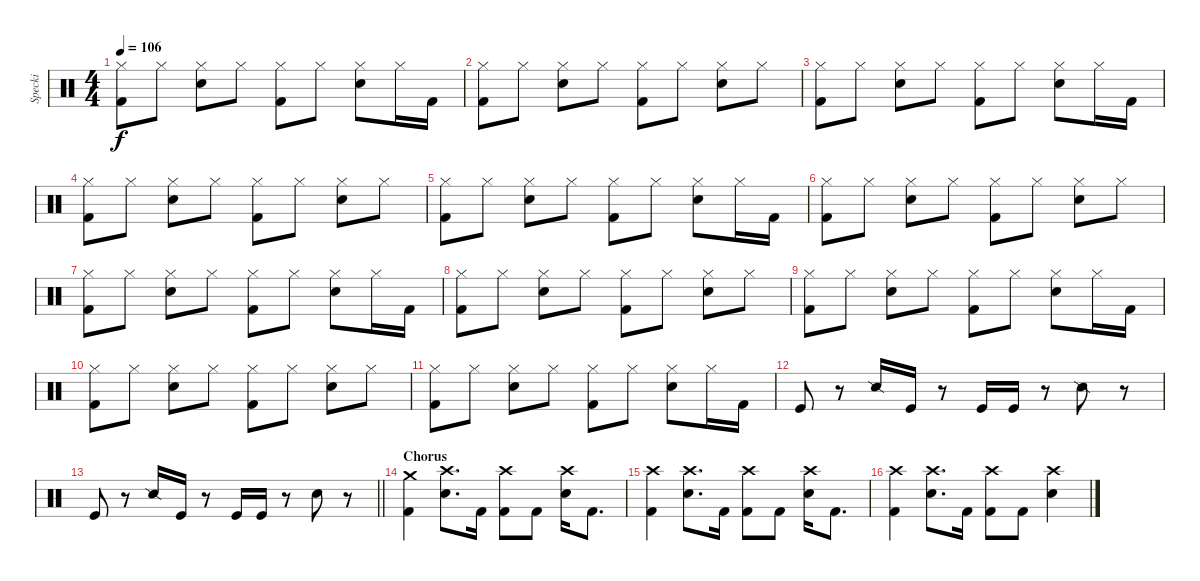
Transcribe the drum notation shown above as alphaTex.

\track ("Specki" "Specki") {instrument percussion}
\staff {score}
\articulation defaults
\ts (4 4)
\tempo 106
\clef neutral
\ks c
("Hi-Hat (closed)" "Kick (hit) 2").8{dy f} "Hi-Hat (closed)".8 ("Hi-Hat (closed)" "Snare (hit) 2").8 "Hi-Hat (closed)".8 ("Hi-Hat (closed)" "Kick (hit) 2").8 "Hi-Hat (closed)".8 ("Hi-Hat (closed)" "Snare (hit) 2").8 "Hi-Hat (closed)".16 "Kick (hit) 2".16 |
("Hi-Hat (closed)" "Kick (hit) 2").8 "Hi-Hat (closed)".8 ("Hi-Hat (closed)" "Snare (hit) 2").8 "Hi-Hat (closed)".8 ("Hi-Hat (closed)" "Kick (hit) 2").8 "Hi-Hat (closed)".8 ("Hi-Hat (closed)" "Snare (hit) 2").8 "Hi-Hat (closed)".8 |
("Hi-Hat (closed)" "Kick (hit) 2").8 "Hi-Hat (closed)".8 ("Hi-Hat (closed)" "Snare (hit) 2").8 "Hi-Hat (closed)".8 ("Hi-Hat (closed)" "Kick (hit) 2").8 "Hi-Hat (closed)".8 ("Hi-Hat (closed)" "Snare (hit) 2").8 "Hi-Hat (closed)".16 "Kick (hit) 2".16 |
("Hi-Hat (closed)" "Kick (hit) 2").8 "Hi-Hat (closed)".8 ("Hi-Hat (closed)" "Snare (hit) 2").8 "Hi-Hat (closed)".8 ("Hi-Hat (closed)" "Kick (hit) 2").8 "Hi-Hat (closed)".8 ("Hi-Hat (closed)" "Snare (hit) 2").8 "Hi-Hat (closed)".8 |
("Hi-Hat (closed)" "Kick (hit) 2").8 "Hi-Hat (closed)".8 ("Hi-Hat (closed)" "Snare (hit) 2").8 "Hi-Hat (closed)".8 ("Hi-Hat (closed)" "Kick (hit) 2").8 "Hi-Hat (closed)".8 ("Hi-Hat (closed)" "Snare (hit) 2").8 "Hi-Hat (closed)".16 "Kick (hit) 2".16 |
("Hi-Hat (closed)" "Kick (hit) 2").8 "Hi-Hat (closed)".8 ("Hi-Hat (closed)" "Snare (hit) 2").8 "Hi-Hat (closed)".8 ("Hi-Hat (closed)" "Kick (hit) 2").8 "Hi-Hat (closed)".8 ("Hi-Hat (closed)" "Snare (hit) 2").8 "Hi-Hat (closed)".8 |
("Hi-Hat (closed)" "Kick (hit) 2").8 "Hi-Hat (closed)".8 ("Hi-Hat (closed)" "Snare (hit) 2").8 "Hi-Hat (closed)".8 ("Hi-Hat (closed)" "Kick (hit) 2").8 "Hi-Hat (closed)".8 ("Hi-Hat (closed)" "Snare (hit) 2").8 "Hi-Hat (closed)".16 "Kick (hit) 2".16 |
("Hi-Hat (closed)" "Kick (hit) 2").8 "Hi-Hat (closed)".8 ("Hi-Hat (closed)" "Snare (hit) 2").8 "Hi-Hat (closed)".8 ("Hi-Hat (closed)" "Kick (hit) 2").8 "Hi-Hat (closed)".8 ("Hi-Hat (closed)" "Snare (hit) 2").8 "Hi-Hat (closed)".8 |
("Hi-Hat (closed)" "Kick (hit) 2").8 "Hi-Hat (closed)".8 ("Hi-Hat (closed)" "Snare (hit) 2").8 "Hi-Hat (closed)".8 ("Hi-Hat (closed)" "Kick (hit) 2").8 "Hi-Hat (closed)".8 ("Hi-Hat (closed)" "Snare (hit) 2").8 "Hi-Hat (closed)".16 "Kick (hit) 2".16 |
("Hi-Hat (closed)" "Kick (hit) 2").8 "Hi-Hat (closed)".8 ("Hi-Hat (closed)" "Snare (hit) 2").8 "Hi-Hat (closed)".8 ("Hi-Hat (closed)" "Kick (hit) 2").8 "Hi-Hat (closed)".8 ("Hi-Hat (closed)" "Snare (hit) 2").8 "Hi-Hat (closed)".8 |
("Hi-Hat (closed)" "Kick (hit) 2").8 "Hi-Hat (closed)".8 ("Hi-Hat (closed)" "Snare (hit) 2").8 "Hi-Hat (closed)".8 ("Hi-Hat (closed)" "Kick (hit) 2").8 "Hi-Hat (closed)".8 ("Hi-Hat (closed)" "Snare (hit) 2").8 "Hi-Hat (closed)".16 "Kick (hit) 2".16 |
"Kick (hit)".8 r.8 "Snare (side stick) 2".16 "Kick (hit)".16 r.8 "Kick (hit)".16 "Kick (hit)".16 r.8 "Snare (side stick) 2".8 r.8 |
\barLineRight lightlight "Kick (hit)".8
r.8 "Snare (side stick) 2".16 "Kick (hit)".16 r.8 "Kick (hit)".16 "Kick (hit)".16 r.8 "Electric Snare (hit)".8 r.8 |
\section ("" "Chorus")
("Crash medium (hit)" "Kick (hit) 2").4 ("Crash high (hit)" "Snare (hit) 2").8{d} "Kick (hit) 2".16 ("Crash high (hit)" "Kick (hit) 2").8 "Kick (hit) 2".8 ("Crash high (hit)" "Snare (hit) 2").16 "Kick (hit) 2".8{d} |
("Crash high (hit)" "Kick (hit) 2").4 ("Crash high (hit)" "Snare (hit) 2").8{d} "Kick (hit) 2".16 ("Crash high (hit)" "Kick (hit) 2").8 "Kick (hit) 2".8 ("Crash high (hit)" "Snare (hit) 2").16 "Kick (hit) 2".8{d} |
("Crash high (hit)" "Kick (hit) 2").4 ("Crash high (hit)" "Snare (hit) 2").8{d} "Kick (hit) 2".16 ("Crash high (hit)" "Kick (hit) 2").8 "Kick (hit) 2".8 ("Crash high (hit)" "Snare (hit) 2").4
